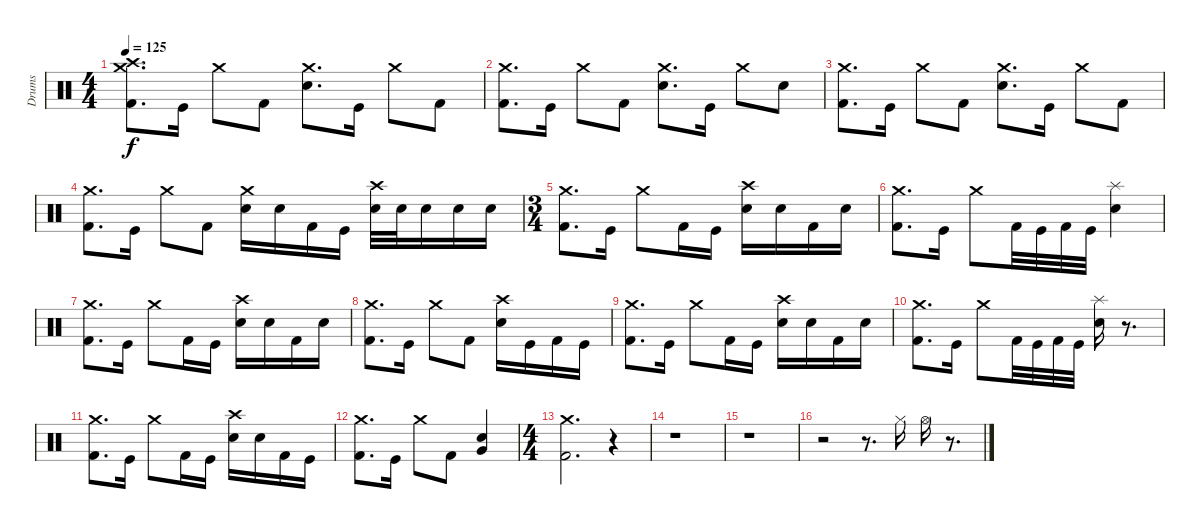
\track ("Drums" "Drums") {instrument percussion}
\staff {score}
\articulation defaults
\ts (4 4)
\tempo 125
\clef neutral
\ks c
("Crash medium (hit)" "Crash high (hit)" "Kick (hit) 2").8{d dy f} "Kick (hit)".16 "Crash medium (hit)".8 "Kick (hit) 2".8 ("Crash medium (hit)" "Electric Snare (hit)").8{d} "Kick (hit)".16 "Crash medium (hit)".8 "Kick (hit) 2".8 |
("Crash medium (hit)" "Kick (hit) 2").8{d} "Kick (hit)".16 "Crash medium (hit)".8 "Kick (hit) 2".8 ("Crash medium (hit)" "Electric Snare (hit)").8{d} "Kick (hit)".16 "Crash medium (hit)".8 "Electric Snare (hit)".8 |
("Crash medium (hit)" "Kick (hit) 2").8{d} "Kick (hit)".16 "Crash medium (hit)".8 "Kick (hit) 2".8 ("Crash medium (hit)" "Electric Snare (hit)").8{d} "Kick (hit)".16 "Crash medium (hit)".8 "Kick (hit) 2".8 |
("Crash medium (hit)" "Kick (hit) 2").8{d} "Kick (hit)".16 "Crash medium (hit)".8 "Kick (hit) 2".8 ("Crash medium (hit)" "Electric Snare (hit)").16 "Electric Snare (hit)".16 "Kick (hit) 2".16 "Kick (hit)".16 ("Crash high (hit)" "Electric Snare (hit)").32 "Electric Snare (hit)".32 "Electric Snare (hit)".16 "Electric Snare (hit)".16 "Electric Snare (hit)".16 |
\ts (3 4)
("Crash medium (hit)" "Kick (hit) 2").8{d} "Kick (hit)".16 "Crash medium (hit)".8 "Kick (hit) 2".16 "Kick (hit)".16 ("Crash high (hit)" "Electric Snare (hit)").16 "Electric Snare (hit)".16 "Kick (hit) 2".16 "Electric Snare (hit)".16 |
("Crash medium (hit)" "Kick (hit) 2").8{d} "Kick (hit)".16 "Crash medium (hit)".8 "Kick (hit) 2".32 "Kick (hit)".32 "Kick (hit) 2".32 "Kick (hit)".32 ("Splash (hit)" "Electric Snare (hit)").4 |
("Crash medium (hit)" "Kick (hit) 2").8{d} "Kick (hit)".16 "Crash medium (hit)".8 "Kick (hit) 2".16 "Kick (hit)".16 ("Crash high (hit)" "Electric Snare (hit)").16 "Electric Snare (hit)".16 "Kick (hit) 2".16 "Electric Snare (hit)".16 |
("Crash medium (hit)" "Kick (hit) 2").8{d} "Kick (hit)".16 "Crash medium (hit)".8 "Kick (hit) 2".8 ("Crash high (hit)" "Electric Snare (hit)").16 "Kick (hit)".16 "Kick (hit) 2".16 "Kick (hit)".16 |
("Crash medium (hit)" "Kick (hit) 2").8{d} "Kick (hit)".16 "Crash medium (hit)".8 "Kick (hit) 2".16 "Kick (hit)".16 ("Crash high (hit)" "Electric Snare (hit)").16 "Electric Snare (hit)".16 "Kick (hit) 2".16 "Electric Snare (hit)".16 |
("Crash medium (hit)" "Kick (hit) 2").8{d} "Kick (hit)".16 "Crash medium (hit)".8 "Kick (hit) 2".32 "Kick (hit)".32 "Kick (hit) 2".32 "Kick (hit)".32 ("Splash (hit)" "Electric Snare (hit)").16 r.8{d} |
("Crash medium (hit)" "Kick (hit) 2").8{d} "Kick (hit)".16 "Crash medium (hit)".8 "Kick (hit) 2".16 "Kick (hit)".16 ("Crash high (hit)" "Electric Snare (hit)").16 "Electric Snare (hit)".16 "Kick (hit) 2".16 "Kick (hit)".16 |
("Crash medium (hit)" "Kick (hit) 2").8{d} "Kick (hit)".16 "Crash medium (hit)".8 "Kick (hit) 2".8 ("Electric Snare (hit)" "Very Low Tom (hit)").4 |
\ts (4 4)
("Crash medium (hit)" "Kick (hit) 2").2{d} r.4 |
r.1 |
r.1 |
r.2 r.8{d} "Hi-Hat (closed)".16 "Hi-Hat (open)".16 r.8{d}
